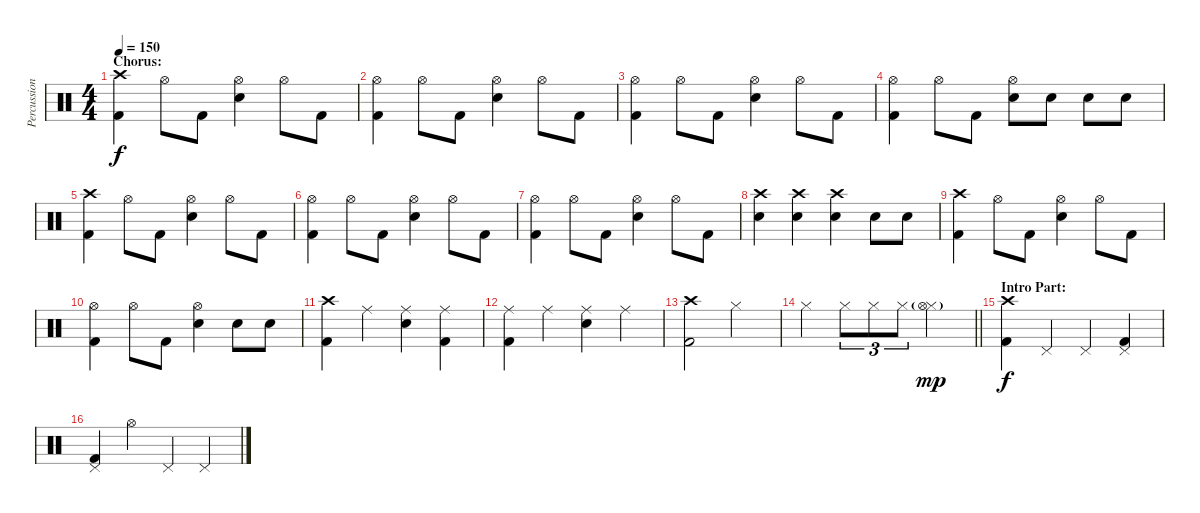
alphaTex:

\track ("Percussion" "Percussion") {instrument percussion}
\staff {score}
\articulation defaults
\ts (4 4)
\section ("" "Chorus:")
\tempo 150
\clef neutral
\ks c
("Crash high (hit)" "Kick (hit) 2").4{dy f} "Hi-Hat (open)".8 "Kick (hit) 2".8 ("Hi-Hat (open)" "Electric Snare (hit)").4 "Hi-Hat (open)".8 "Kick (hit) 2".8 |
("Hi-Hat (open)" "Kick (hit) 2").4 "Hi-Hat (open)".8 "Kick (hit) 2".8 ("Hi-Hat (open)" "Electric Snare (hit)").4 "Hi-Hat (open)".8 "Kick (hit) 2".8 |
("Hi-Hat (open)" "Kick (hit) 2").4 "Hi-Hat (open)".8 "Kick (hit) 2".8 ("Hi-Hat (open)" "Electric Snare (hit)").4 "Hi-Hat (open)".8 "Kick (hit) 2".8 |
("Hi-Hat (open)" "Kick (hit) 2").4 "Hi-Hat (open)".8 "Kick (hit) 2".8 ("Hi-Hat (open)" "Electric Snare (hit)").8 "Electric Snare (hit)".8 "Electric Snare (hit)".8 "Electric Snare (hit)".8 |
("Crash high (hit)" "Kick (hit) 2").4 "Hi-Hat (open)".8 "Kick (hit) 2".8 ("Hi-Hat (open)" "Electric Snare (hit)").4 "Hi-Hat (open)".8 "Kick (hit) 2".8 |
("Hi-Hat (open)" "Kick (hit) 2").4 "Hi-Hat (open)".8 "Kick (hit) 2".8 ("Hi-Hat (open)" "Electric Snare (hit)").4 "Hi-Hat (open)".8 "Kick (hit) 2".8 |
("Hi-Hat (open)" "Kick (hit) 2").4 "Hi-Hat (open)".8 "Kick (hit) 2".8 ("Hi-Hat (open)" "Electric Snare (hit)").4 "Hi-Hat (open)".8 "Kick (hit) 2".8 |
("Crash high (hit)" "Electric Snare (hit)").4 ("Crash high (hit)" "Electric Snare (hit)").4 ("Crash high (hit)" "Electric Snare (hit)").4 "Electric Snare (hit)".8 "Electric Snare (hit)".8 |
("Crash high (hit)" "Kick (hit) 2").4 "Hi-Hat (open)".8 "Kick (hit) 2".8 ("Hi-Hat (open)" "Electric Snare (hit)").4 "Hi-Hat (open)".8 "Kick (hit) 2".8 |
("Hi-Hat (open)" "Kick (hit) 2").4 "Hi-Hat (open)".8 "Kick (hit) 2".8 ("Hi-Hat (open)" "Electric Snare (hit)").4 "Electric Snare (hit)".8 "Electric Snare (hit)".8 |
("Crash high (hit)" "Kick (hit) 2").4 "Ride (middle)".4 ("Ride (middle)" "Electric Snare (hit)").4 ("Ride (middle)" "Kick (hit) 2").4 |
("Ride (middle)" "Kick (hit) 2").4 "Ride (middle)".4 ("Ride (middle)" "Electric Snare (hit)").4 "Ride (middle)".4 |
("Crash high (hit)" "Kick (hit) 2").2 "Hi-Hat (closed)".2 |
\barLineRight lightlight "Hi-Hat (closed)".4 "Hi-Hat (closed)".8{tu (3 2)} "Hi-Hat (closed)".8{tu (3 2)} "Hi-Hat (closed)".8{tu (3 2)}
("Hi-Hat (closed)" "Hi-Hat (open)"{g}).2{dy mp} |
\section ("" "Intro Part:")
("Crash high (hit)" "Kick (hit) 2").4{dy f} "Pedal Hi-Hat (hit)".4 "Pedal Hi-Hat (hit)".4 ("Pedal Hi-Hat (hit)" "Kick (hit) 2").4 |
("Pedal Hi-Hat (hit)" "Kick (hit) 2").4 "Hi-Hat (open)".4 "Pedal Hi-Hat (hit)".4 "Pedal Hi-Hat (hit)".4
